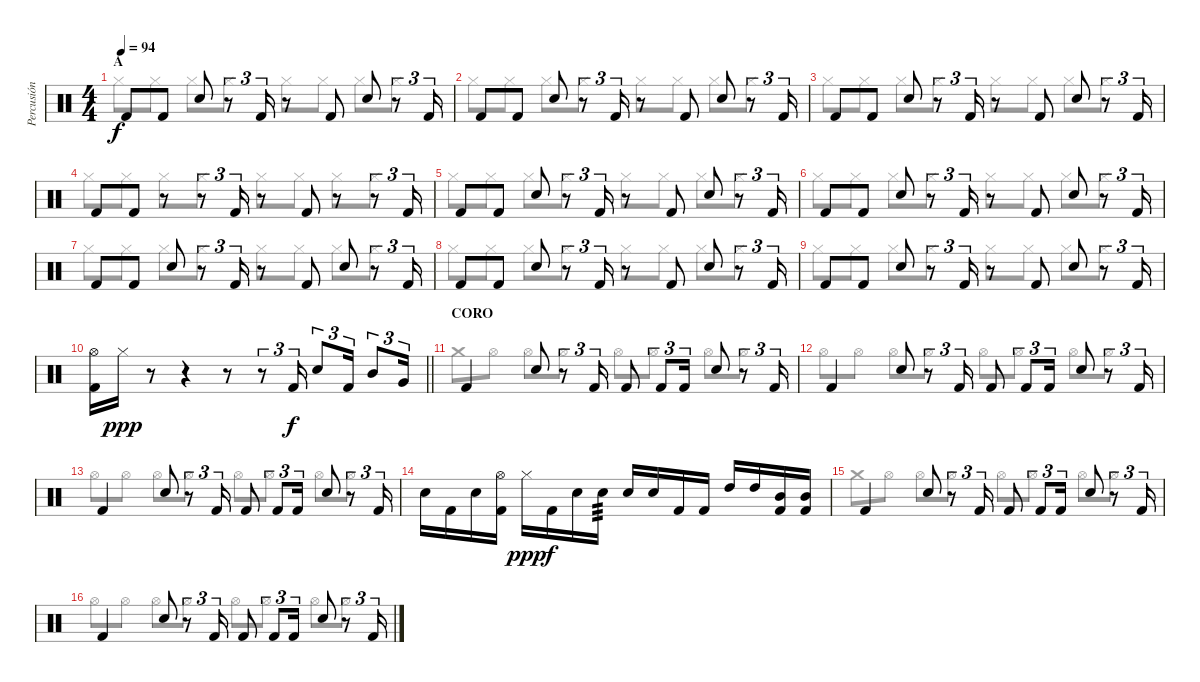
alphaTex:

\track ("Percusión" "Percusión") {instrument percussion}
\staff {score}
\articulation defaults
\voice
\ts (4 4)
\section ("" "A")
\tempo 94
\clef neutral
\ks c "Kick (hit) 2".8{dy f} "Kick (hit) 2".8 "Electric Snare (hit)".8
r.8{tu (3 2)} "Kick (hit) 2".16{tu (3 2)} r.8 "Kick (hit) 2".8 "Electric Snare (hit)".8 r.8{tu (3 2)} "Kick (hit) 2".16{tu (3 2)} |
"Kick (hit) 2".8 "Kick (hit) 2".8 "Electric Snare (hit)".8 r.8{tu (3 2)} "Kick (hit) 2".16{tu (3 2)} r.8 "Kick (hit) 2".8 "Electric Snare (hit)".8 r.8{tu (3 2)} "Kick (hit) 2".16{tu (3 2)} |
"Kick (hit) 2".8 "Kick (hit) 2".8 "Electric Snare (hit)".8 r.8{tu (3 2)} "Kick (hit) 2".16{tu (3 2)} r.8 "Kick (hit) 2".8 "Electric Snare (hit)".8 r.8{tu (3 2)} "Kick (hit) 2".16{tu (3 2)} |
"Kick (hit) 2".8 "Kick (hit) 2".8 r.8 r.8{tu (3 2)} "Kick (hit) 2".16{tu (3 2)} r.8 "Kick (hit) 2".8 r.8 r.8{tu (3 2)} "Kick (hit) 2".16{tu (3 2)} |
"Kick (hit) 2".8 "Kick (hit) 2".8 "Electric Snare (hit)".8 r.8{tu (3 2)} "Kick (hit) 2".16{tu (3 2)} r.8 "Kick (hit) 2".8 "Electric Snare (hit)".8 r.8{tu (3 2)} "Kick (hit) 2".16{tu (3 2)} |
"Kick (hit) 2".8 "Kick (hit) 2".8 "Electric Snare (hit)".8 r.8{tu (3 2)} "Kick (hit) 2".16{tu (3 2)} r.8 "Kick (hit) 2".8 "Electric Snare (hit)".8 r.8{tu (3 2)} "Kick (hit) 2".16{tu (3 2)} |
"Kick (hit) 2".8 "Kick (hit) 2".8 "Electric Snare (hit)".8 r.8{tu (3 2)} "Kick (hit) 2".16{tu (3 2)} r.8 "Kick (hit) 2".8 "Electric Snare (hit)".8 r.8{tu (3 2)} "Kick (hit) 2".16{tu (3 2)} |
"Kick (hit) 2".8 "Kick (hit) 2".8 "Electric Snare (hit)".8 r.8{tu (3 2)} "Kick (hit) 2".16{tu (3 2)} r.8 "Kick (hit) 2".8 "Electric Snare (hit)".8 r.8{tu (3 2)} "Kick (hit) 2".16{tu (3 2)} |
"Kick (hit) 2".8 "Kick (hit) 2".8 "Electric Snare (hit)".8 r.8{tu (3 2)} "Kick (hit) 2".16{tu (3 2)} r.8 "Kick (hit) 2".8 "Electric Snare (hit)".8 r.8{tu (3 2)} "Kick (hit) 2".16{tu (3 2)} |
\barLineRight lightlight
("Hi-Hat (open)" "Kick (hit) 2").16 "Hi-Hat (closed)".16{dy ppp} r.8 r.4 r.8 r.8{tu (3 2)} "Kick (hit) 2".16{tu (3 2) dy f} "Electric Snare (hit)".8{tu (3 2)} "Kick (hit) 2".16{tu (3 2)} "Mid Tom (hit)".8{tu (3 2)} "Very Low Tom (hit)".16{tu (3 2)} |
\section ("" "CORO")
"Kick (hit) 2".4 "Electric Snare (hit)".8 r.8{tu (3 2)} "Kick (hit) 2".16{tu (3 2)} "Kick (hit) 2".8 "Kick (hit) 2".8{tu (3 2)} "Kick (hit) 2".16{tu (3 2)} "Electric Snare (hit)".8 r.8{tu (3 2)} "Kick (hit) 2".16{tu (3 2)} |
"Kick (hit) 2".4 "Electric Snare (hit)".8 r.8{tu (3 2)} "Kick (hit) 2".16{tu (3 2)} "Kick (hit) 2".8 "Kick (hit) 2".8{tu (3 2)} "Kick (hit) 2".16{tu (3 2)} "Electric Snare (hit)".8 r.8{tu (3 2)} "Kick (hit) 2".16{tu (3 2)} |
"Kick (hit) 2".4 "Electric Snare (hit)".8 r.8{tu (3 2)} "Kick (hit) 2".16{tu (3 2)} "Kick (hit) 2".8 "Kick (hit) 2".8{tu (3 2)} "Kick (hit) 2".16{tu (3 2)} "Electric Snare (hit)".8 r.8{tu (3 2)} "Kick (hit) 2".16{tu (3 2)} |
"Electric Snare (hit)".16 "Kick (hit) 2".16 "Electric Snare (hit)".16 ("Hi-Hat (open)" "Kick (hit) 2").16 "Hi-Hat (closed)".16{dy ppp} "Kick (hit) 2".16{dy f} "Electric Snare (hit)".16 "Electric Snare (hit)".16{tp 3} "Electric Snare (hit)".16 "Electric Snare (hit)".16 "Kick (hit) 2".16 "Kick (hit) 2".16 "High Tom (hit)".16 "High Tom (hit)".16 ("Mid Tom (hit)" "Kick (hit) 2").16 ("Mid Tom (hit)" "Kick (hit) 2").16 |
"Kick (hit) 2".4 "Electric Snare (hit)".8 r.8{tu (3 2)} "Kick (hit) 2".16{tu (3 2)} "Kick (hit) 2".8 "Kick (hit) 2".8{tu (3 2)} "Kick (hit) 2".16{tu (3 2)} "Electric Snare (hit)".8 r.8{tu (3 2)} "Kick (hit) 2".16{tu (3 2)} |
"Kick (hit) 2".4 "Electric Snare (hit)".8 r.8{tu (3 2)} "Kick (hit) 2".16{tu (3 2)} "Kick (hit) 2".8 "Kick (hit) 2".8{tu (3 2)} "Kick (hit) 2".16{tu (3 2)} "Electric Snare (hit)".8 r.8{tu (3 2)} "Kick (hit) 2".16{tu (3 2)}
\voice
\clef neutral
\ottava regular
\simile none
\ks c "Hi-Hat (closed)".8{dy f} "Hi-Hat (closed)".8 "Hi-Hat (closed)".8 "Hi-Hat (closed)".8 "Hi-Hat (closed)".8 "Hi-Hat (closed)".8 "Hi-Hat (closed)".8 "Hi-Hat (closed)".8
|
"Hi-Hat (closed)".8 "Hi-Hat (closed)".8 "Hi-Hat (closed)".8 "Hi-Hat (closed)".8 "Hi-Hat (closed)".8 "Hi-Hat (closed)".8 "Hi-Hat (closed)".8 "Hi-Hat (closed)".8 |
"Hi-Hat (closed)".8 "Hi-Hat (closed)".8 "Hi-Hat (closed)".8 "Hi-Hat (closed)".8 "Hi-Hat (closed)".8 "Hi-Hat (closed)".8 "Hi-Hat (closed)".8 "Hi-Hat (closed)".8 |
"Hi-Hat (closed)".8 "Hi-Hat (closed)".8 "Hi-Hat (closed)".8 "Hi-Hat (closed)".8 "Hi-Hat (closed)".8 "Hi-Hat (closed)".8 "Hi-Hat (closed)".8 "Hi-Hat (closed)".8 |
"Hi-Hat (closed)".8 "Hi-Hat (closed)".8 "Hi-Hat (closed)".8 "Hi-Hat (closed)".8 "Hi-Hat (closed)".8 "Hi-Hat (closed)".8 "Hi-Hat (closed)".8 "Hi-Hat (closed)".8 |
"Hi-Hat (closed)".8 "Hi-Hat (closed)".8 "Hi-Hat (closed)".8 "Hi-Hat (closed)".8 "Hi-Hat (closed)".8 "Hi-Hat (closed)".8 "Hi-Hat (closed)".8 "Hi-Hat (closed)".8 |
"Hi-Hat (closed)".8 "Hi-Hat (closed)".8 "Hi-Hat (closed)".8 "Hi-Hat (closed)".8 "Hi-Hat (closed)".8 "Hi-Hat (closed)".8 "Hi-Hat (closed)".8 "Hi-Hat (closed)".8 |
"Hi-Hat (closed)".8 "Hi-Hat (closed)".8 "Hi-Hat (closed)".8 "Hi-Hat (closed)".8 "Hi-Hat (closed)".8 "Hi-Hat (closed)".8 "Hi-Hat (closed)".8 "Hi-Hat (closed)".8 |
"Hi-Hat (closed)".8 "Hi-Hat (closed)".8 "Hi-Hat (closed)".8 "Hi-Hat (closed)".8 "Hi-Hat (closed)".8 "Hi-Hat (closed)".8 "Hi-Hat (closed)".8 "Hi-Hat (closed)".8 |
\barLineRight lightlight
|
"Crash medium (hit)".8 "Hi-Hat (open)".8 "Hi-Hat (open)".8 "Hi-Hat (open)".8 "Hi-Hat (open)".8 "Hi-Hat (open)".8 "Hi-Hat (open)".8 "Hi-Hat (open)".8 |
"Hi-Hat (open)".8 "Hi-Hat (open)".8 "Hi-Hat (open)".8 "Hi-Hat (open)".8 "Hi-Hat (open)".8 "Hi-Hat (open)".8 "Hi-Hat (open)".8 "Hi-Hat (open)".8 |
"Hi-Hat (open)".8 "Hi-Hat (open)".8 "Hi-Hat (open)".8 "Hi-Hat (open)".8 "Hi-Hat (open)".8 "Hi-Hat (open)".8 "Hi-Hat (open)".8 "Hi-Hat (open)".8 |
|
"Crash medium (hit)".8 "Hi-Hat (open)".8 "Hi-Hat (open)".8 "Hi-Hat (open)".8 "Hi-Hat (open)".8 "Hi-Hat (open)".8 "Hi-Hat (open)".8 "Hi-Hat (open)".8 |
"Hi-Hat (open)".8 "Hi-Hat (open)".8 "Hi-Hat (open)".8 "Hi-Hat (open)".8 "Hi-Hat (open)".8 "Hi-Hat (open)".8 "Hi-Hat (open)".8 "Hi-Hat (open)".8
